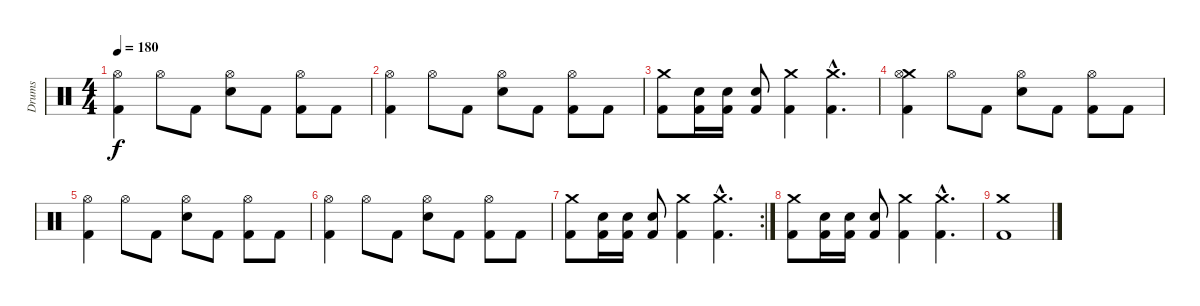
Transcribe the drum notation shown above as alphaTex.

\track ("Drums" "Drums") {instrument percussion}
\staff {score}
\articulation defaults
\ts (4 4)
\tempo 180
\clef neutral
\ks c
("Hi-Hat (open)" "Kick (hit) 2").4{dy f} "Hi-Hat (open)".8 "Kick (hit) 2".8 ("Hi-Hat (open)" "Snare (hit) 2").8 "Kick (hit) 2".8 ("Hi-Hat (open)" "Kick (hit) 2").8 "Kick (hit) 2".8 |
("Hi-Hat (open)" "Kick (hit) 2").4 "Hi-Hat (open)".8 "Kick (hit) 2".8 ("Hi-Hat (open)" "Snare (hit) 2").8 "Kick (hit) 2".8 ("Hi-Hat (open)" "Kick (hit) 2").8 "Kick (hit) 2".8 |
("Crash medium (hit)" "Kick (hit) 2").8 ("Snare (hit) 2" "Kick (hit) 2").16 ("Snare (hit) 2" "Kick (hit) 2").16 ("Snare (hit) 2" "Kick (hit) 2").8 ("Crash medium (hit)" "Kick (hit) 2").4 ("Crash medium (hit)"{hac} "Kick (hit) 2"{hac}).4{d} |
("Crash medium (hit)" "Hi-Hat (open)" "Kick (hit) 2").4 "Hi-Hat (open)".8 "Kick (hit) 2".8 ("Hi-Hat (open)" "Snare (hit) 2").8 "Kick (hit) 2".8 ("Hi-Hat (open)" "Kick (hit) 2").8 "Kick (hit) 2".8 |
("Hi-Hat (open)" "Kick (hit) 2").4 "Hi-Hat (open)".8 "Kick (hit) 2".8 ("Hi-Hat (open)" "Snare (hit) 2").8 "Kick (hit) 2".8 ("Hi-Hat (open)" "Kick (hit) 2").8 "Kick (hit) 2".8 |
("Hi-Hat (open)" "Kick (hit) 2").4 "Hi-Hat (open)".8 "Kick (hit) 2".8 ("Hi-Hat (open)" "Snare (hit) 2").8 "Kick (hit) 2".8 ("Hi-Hat (open)" "Kick (hit) 2").8 "Kick (hit) 2".8 |
\rc 2
("Crash medium (hit)" "Kick (hit) 2").8 ("Snare (hit) 2" "Kick (hit) 2").16 ("Snare (hit) 2" "Kick (hit) 2").16 ("Snare (hit) 2" "Kick (hit) 2").8 ("Crash medium (hit)" "Kick (hit) 2").4 ("Crash medium (hit)"{hac} "Kick (hit) 2"{hac}).4{d} |
("Crash medium (hit)" "Kick (hit) 2").8 ("Snare (hit) 2" "Kick (hit) 2").16 ("Snare (hit) 2" "Kick (hit) 2").16 ("Snare (hit) 2" "Kick (hit) 2").8 ("Crash medium (hit)" "Kick (hit) 2").4 ("Crash medium (hit)"{hac} "Kick (hit) 2"{hac}).4{d} |
("Crash medium (hit)" "Kick (hit) 2").1
